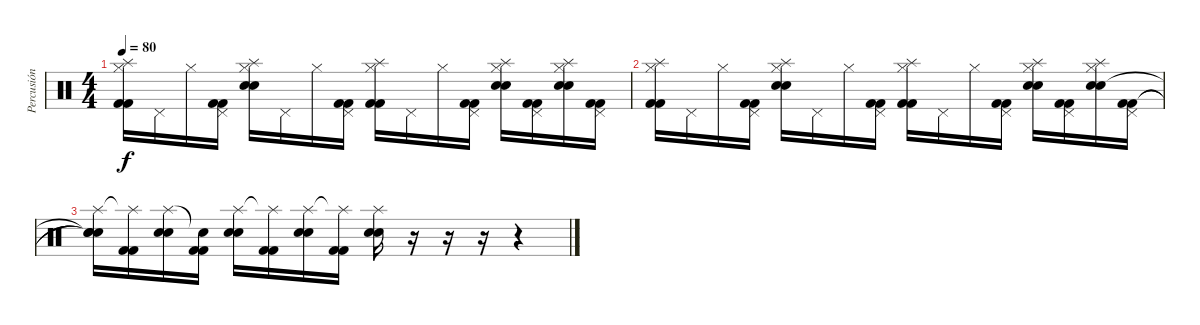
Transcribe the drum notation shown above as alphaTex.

\track ("Percusión" "Percusión") {instrument percussion}
\staff {score}
\articulation defaults
\ts (4 4)
\tempo 80
\clef neutral
\ks c
("Hi-Hat (closed)" "Splash (hit)" "Kick (hit) 2" "Kick (hit) 2").16{dy f} "Pedal Hi-Hat (hit)".16 "Hi-Hat (closed)".16 ("Pedal Hi-Hat (hit)" "Kick (hit) 2" "Kick (hit) 2").16 ("Hi-Hat (closed)" "Splash (hit)" "Electric Snare (hit)" "Electric Snare (hit)").16 "Pedal Hi-Hat (hit)".16 "Hi-Hat (closed)".16 ("Pedal Hi-Hat (hit)" "Kick (hit) 2" "Kick (hit) 2").16 ("Hi-Hat (closed)" "Splash (hit)" "Kick (hit) 2" "Kick (hit) 2").16 "Pedal Hi-Hat (hit)".16 "Hi-Hat (closed)".16 ("Pedal Hi-Hat (hit)" "Kick (hit) 2" "Kick (hit) 2").16 ("Hi-Hat (closed)" "Splash (hit)" "Electric Snare (hit)" "Electric Snare (hit)").16 ("Pedal Hi-Hat (hit)" "Kick (hit) 2" "Kick (hit) 2").16 ("Hi-Hat (closed)" "Splash (hit)" "Electric Snare (hit)" "Electric Snare (hit)").16 ("Pedal Hi-Hat (hit)" "Kick (hit) 2" "Kick (hit) 2").16 |
("Hi-Hat (closed)" "Splash (hit)" "Kick (hit) 2" "Kick (hit) 2").16 "Pedal Hi-Hat (hit)".16 "Hi-Hat (closed)".16 ("Pedal Hi-Hat (hit)" "Kick (hit) 2" "Kick (hit) 2").16 ("Hi-Hat (closed)" "Splash (hit)" "Electric Snare (hit)" "Electric Snare (hit)").16 "Pedal Hi-Hat (hit)".16 "Hi-Hat (closed)".16 ("Pedal Hi-Hat (hit)" "Kick (hit) 2" "Kick (hit) 2").16 ("Hi-Hat (closed)" "Splash (hit)" "Kick (hit) 2" "Kick (hit) 2").16 "Pedal Hi-Hat (hit)".16 "Hi-Hat (closed)".16 ("Pedal Hi-Hat (hit)" "Kick (hit) 2" "Kick (hit) 2").16 ("Hi-Hat (closed)" "Splash (hit)" "Electric Snare (hit)" "Electric Snare (hit)").16 ("Pedal Hi-Hat (hit)" "Kick (hit) 2" "Kick (hit) 2").16 ("Hi-Hat (closed)" "Splash (hit)" "Electric Snare (hit)" "Electric Snare (hit)").16 ("Pedal Hi-Hat (hit)" "Kick (hit) 2" "Kick (hit) 2").16 |
("Splash (hit)" "Snare (hit)"{t} "Snare (hit)"{t} "Snare (hit)"{t}).16 ("Splash (hit)"{t} "Kick (hit) 2" "Kick (hit) 2").16 ("Splash (hit)" "Electric Snare (hit)" "Electric Snare (hit)").16 ("Snare (hit)"{t} "Kick (hit) 2" "Kick (hit) 2").16 ("Splash (hit)" "Electric Snare (hit)" "Electric Snare (hit)").16 ("Splash (hit)"{t} "Kick (hit) 2" "Kick (hit) 2").16 ("Splash (hit)" "Electric Snare (hit)" "Electric Snare (hit)").16 ("Splash (hit)"{t} "Kick (hit) 2" "Kick (hit) 2").16 ("Splash (hit)" "Electric Snare (hit)" "Electric Snare (hit)").16 r.16 r.16 r.16 r.4
